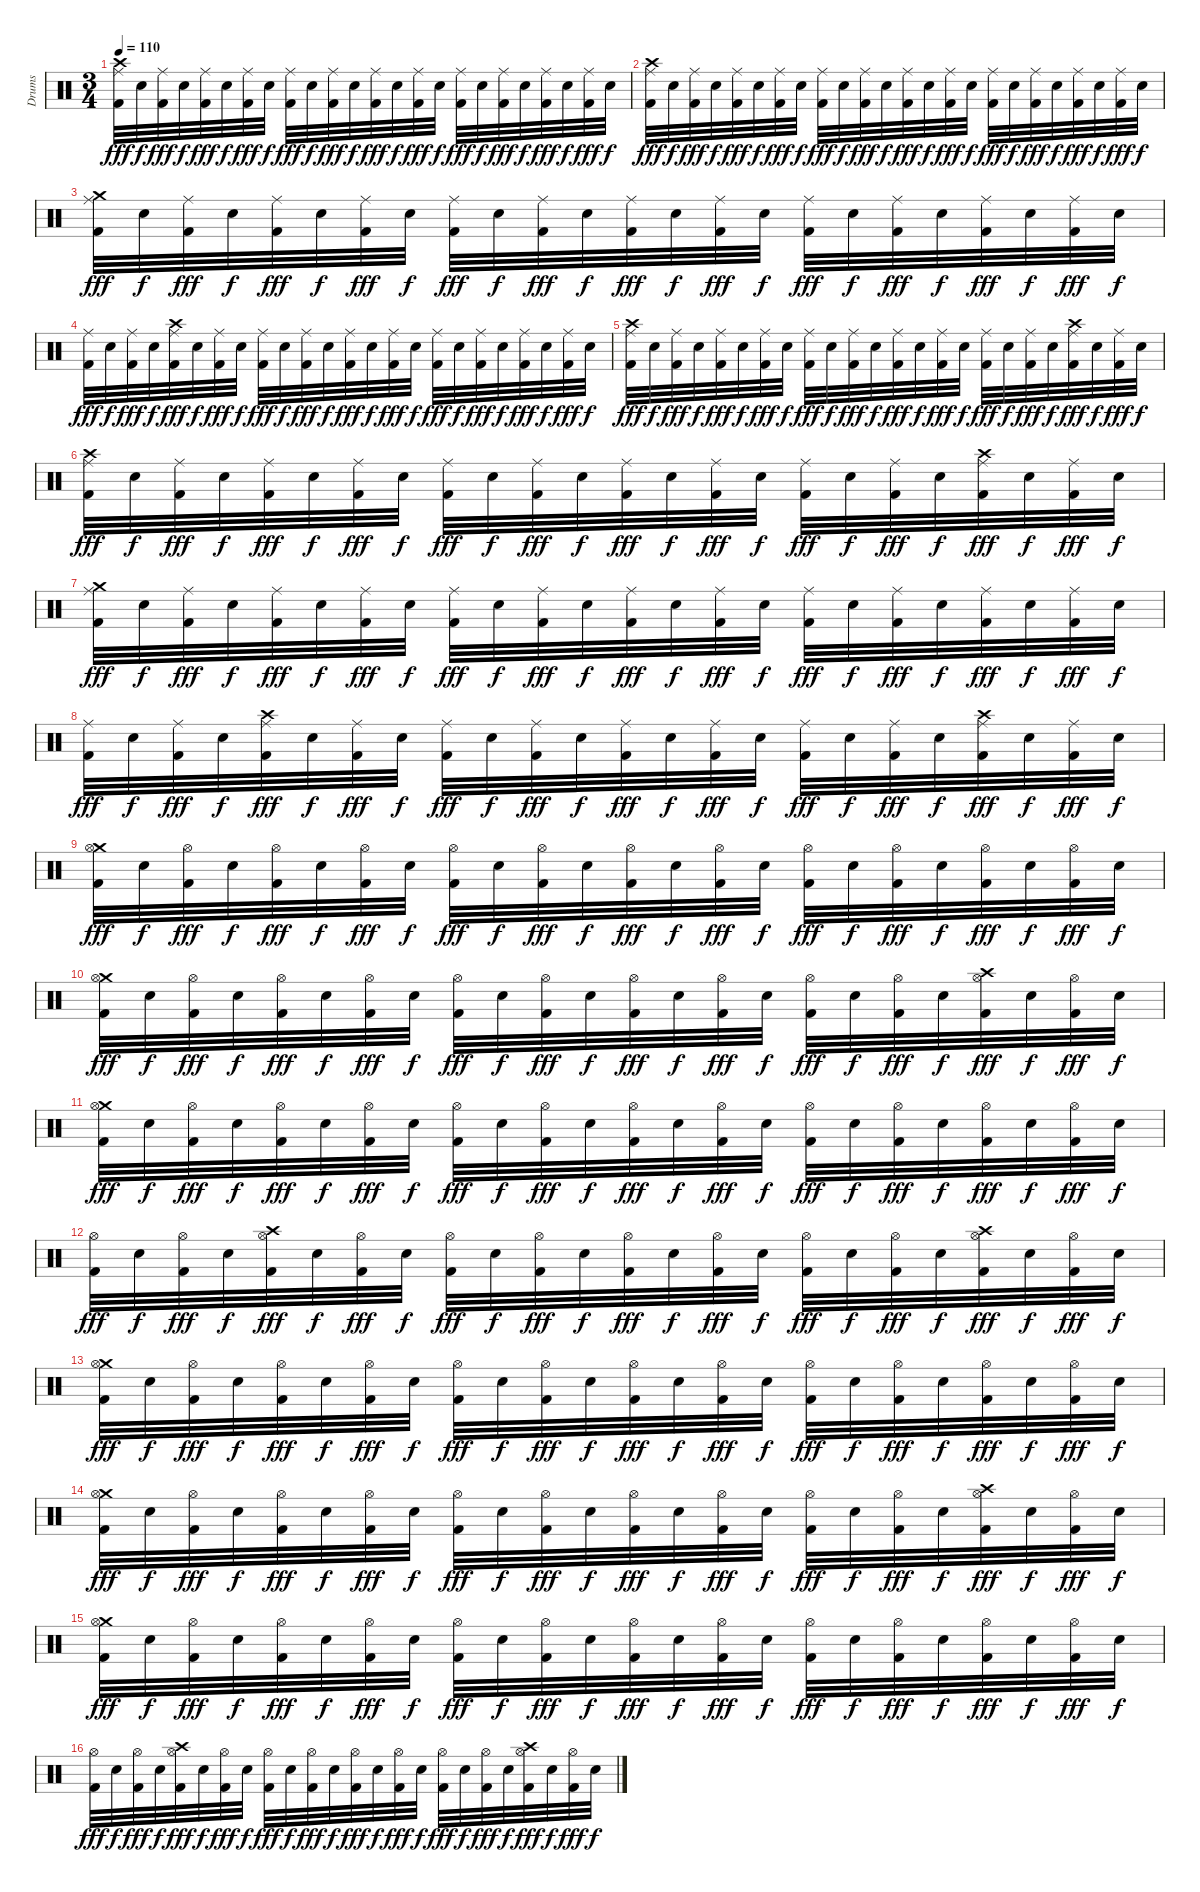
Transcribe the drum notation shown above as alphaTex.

\track ("Drums" "Drums") {instrument percussion}
\staff {score}
\articulation defaults
\ts (3 4)
\tempo 110
\clef neutral
\ks c
("Crash high (hit)" "Ride (middle)" "Kick (hit) 2").32{dy fff} "Electric Snare (hit)".32{dy f} ("Ride (middle)" "Kick (hit) 2").32{dy fff} "Electric Snare (hit)".32{dy f} ("Ride (middle)" "Kick (hit) 2").32{dy fff} "Electric Snare (hit)".32{dy f} ("Ride (middle)" "Kick (hit) 2").32{dy fff} "Electric Snare (hit)".32{dy f} ("Ride (middle)" "Kick (hit) 2").32{dy fff} "Electric Snare (hit)".32{dy f} ("Ride (middle)" "Kick (hit) 2").32{dy fff} "Electric Snare (hit)".32{dy f} ("Ride (middle)" "Kick (hit) 2").32{dy fff} "Electric Snare (hit)".32{dy f} ("Ride (middle)" "Kick (hit) 2").32{dy fff} "Electric Snare (hit)".32{dy f} ("Ride (middle)" "Kick (hit) 2").32{dy fff} "Electric Snare (hit)".32{dy f} ("Ride (middle)" "Kick (hit) 2").32{dy fff} "Electric Snare (hit)".32{dy f} ("Ride (middle)" "Kick (hit) 2").32{dy fff} "Electric Snare (hit)".32{dy f} ("Ride (middle)" "Kick (hit) 2").32{dy fff} "Electric Snare (hit)".32{dy f} |
("Crash high (hit)" "Ride (middle)" "Kick (hit) 2").32{dy fff} "Electric Snare (hit)".32{dy f} ("Ride (middle)" "Kick (hit) 2").32{dy fff} "Electric Snare (hit)".32{dy f} ("Ride (middle)" "Kick (hit) 2").32{dy fff} "Electric Snare (hit)".32{dy f} ("Ride (middle)" "Kick (hit) 2").32{dy fff} "Electric Snare (hit)".32{dy f} ("Ride (middle)" "Kick (hit) 2").32{dy fff} "Electric Snare (hit)".32{dy f} ("Ride (middle)" "Kick (hit) 2").32{dy fff} "Electric Snare (hit)".32{dy f} ("Ride (middle)" "Kick (hit) 2").32{dy fff} "Electric Snare (hit)".32{dy f} ("Ride (middle)" "Kick (hit) 2").32{dy fff} "Electric Snare (hit)".32{dy f} ("Ride (middle)" "Kick (hit) 2").32{dy fff} "Electric Snare (hit)".32{dy f} ("Ride (middle)" "Kick (hit) 2").32{dy fff} "Electric Snare (hit)".32{dy f} ("Ride (middle)" "Kick (hit) 2").32{dy fff} "Electric Snare (hit)".32{dy f} ("Ride (middle)" "Kick (hit) 2").32{dy fff} "Electric Snare (hit)".32{dy f} |
("Crash medium (hit)" "Ride (middle)" "Kick (hit) 2").32{dy fff} "Electric Snare (hit)".32{dy f} ("Ride (middle)" "Kick (hit) 2").32{dy fff} "Electric Snare (hit)".32{dy f} ("Ride (middle)" "Kick (hit) 2").32{dy fff} "Electric Snare (hit)".32{dy f} ("Ride (middle)" "Kick (hit) 2").32{dy fff} "Electric Snare (hit)".32{dy f} ("Ride (middle)" "Kick (hit) 2").32{dy fff} "Electric Snare (hit)".32{dy f} ("Ride (middle)" "Kick (hit) 2").32{dy fff} "Electric Snare (hit)".32{dy f} ("Ride (middle)" "Kick (hit) 2").32{dy fff} "Electric Snare (hit)".32{dy f} ("Ride (middle)" "Kick (hit) 2").32{dy fff} "Electric Snare (hit)".32{dy f} ("Ride (middle)" "Kick (hit) 2").32{dy fff} "Electric Snare (hit)".32{dy f} ("Ride (middle)" "Kick (hit) 2").32{dy fff} "Electric Snare (hit)".32{dy f} ("Ride (middle)" "Kick (hit) 2").32{dy fff} "Electric Snare (hit)".32{dy f} ("Ride (middle)" "Kick (hit) 2").32{dy fff} "Electric Snare (hit)".32{dy f} |
("Ride (middle)" "Kick (hit) 2").32{dy fff} "Electric Snare (hit)".32{dy f} ("Ride (middle)" "Kick (hit) 2").32{dy fff} "Electric Snare (hit)".32{dy f} ("Crash high (hit)" "Ride (middle)" "Kick (hit) 2").32{dy fff} "Electric Snare (hit)".32{dy f} ("Ride (middle)" "Kick (hit) 2").32{dy fff} "Electric Snare (hit)".32{dy f} ("Ride (middle)" "Kick (hit) 2").32{dy fff} "Electric Snare (hit)".32{dy f} ("Ride (middle)" "Kick (hit) 2").32{dy fff} "Electric Snare (hit)".32{dy f} ("Ride (middle)" "Kick (hit) 2").32{dy fff} "Electric Snare (hit)".32{dy f} ("Ride (middle)" "Kick (hit) 2").32{dy fff} "Electric Snare (hit)".32{dy f} ("Ride (middle)" "Kick (hit) 2").32{dy fff} "Electric Snare (hit)".32{dy f} ("Ride (middle)" "Kick (hit) 2").32{dy fff} "Electric Snare (hit)".32{dy f} ("Ride (middle)" "Kick (hit) 2").32{dy fff} "Electric Snare (hit)".32{dy f} ("Ride (middle)" "Kick (hit) 2").32{dy fff} "Electric Snare (hit)".32{dy f} |
("Crash high (hit)" "Ride (middle)" "Kick (hit) 2").32{dy fff} "Electric Snare (hit)".32{dy f} ("Ride (middle)" "Kick (hit) 2").32{dy fff} "Electric Snare (hit)".32{dy f} ("Ride (middle)" "Kick (hit) 2").32{dy fff} "Electric Snare (hit)".32{dy f} ("Ride (middle)" "Kick (hit) 2").32{dy fff} "Electric Snare (hit)".32{dy f} ("Ride (middle)" "Kick (hit) 2").32{dy fff} "Electric Snare (hit)".32{dy f} ("Ride (middle)" "Kick (hit) 2").32{dy fff} "Electric Snare (hit)".32{dy f} ("Ride (middle)" "Kick (hit) 2").32{dy fff} "Electric Snare (hit)".32{dy f} ("Ride (middle)" "Kick (hit) 2").32{dy fff} "Electric Snare (hit)".32{dy f} ("Ride (middle)" "Kick (hit) 2").32{dy fff} "Electric Snare (hit)".32{dy f} ("Ride (middle)" "Kick (hit) 2").32{dy fff} "Electric Snare (hit)".32{dy f} ("Crash high (hit)" "Ride (middle)" "Kick (hit) 2").32{dy fff} "Electric Snare (hit)".32{dy f} ("Ride (middle)" "Kick (hit) 2").32{dy fff} "Electric Snare (hit)".32{dy f} |
("Crash high (hit)" "Ride (middle)" "Kick (hit) 2").32{dy fff} "Electric Snare (hit)".32{dy f} ("Ride (middle)" "Kick (hit) 2").32{dy fff} "Electric Snare (hit)".32{dy f} ("Ride (middle)" "Kick (hit) 2").32{dy fff} "Electric Snare (hit)".32{dy f} ("Ride (middle)" "Kick (hit) 2").32{dy fff} "Electric Snare (hit)".32{dy f} ("Ride (middle)" "Kick (hit) 2").32{dy fff} "Electric Snare (hit)".32{dy f} ("Ride (middle)" "Kick (hit) 2").32{dy fff} "Electric Snare (hit)".32{dy f} ("Ride (middle)" "Kick (hit) 2").32{dy fff} "Electric Snare (hit)".32{dy f} ("Ride (middle)" "Kick (hit) 2").32{dy fff} "Electric Snare (hit)".32{dy f} ("Ride (middle)" "Kick (hit) 2").32{dy fff} "Electric Snare (hit)".32{dy f} ("Ride (middle)" "Kick (hit) 2").32{dy fff} "Electric Snare (hit)".32{dy f} ("Crash high (hit)" "Ride (middle)" "Kick (hit) 2").32{dy fff} "Electric Snare (hit)".32{dy f} ("Ride (middle)" "Kick (hit) 2").32{dy fff} "Electric Snare (hit)".32{dy f} |
("Crash medium (hit)" "Ride (middle)" "Kick (hit) 2").32{dy fff} "Electric Snare (hit)".32{dy f} ("Ride (middle)" "Kick (hit) 2").32{dy fff} "Electric Snare (hit)".32{dy f} ("Ride (middle)" "Kick (hit) 2").32{dy fff} "Electric Snare (hit)".32{dy f} ("Ride (middle)" "Kick (hit) 2").32{dy fff} "Electric Snare (hit)".32{dy f} ("Ride (middle)" "Kick (hit) 2").32{dy fff} "Electric Snare (hit)".32{dy f} ("Ride (middle)" "Kick (hit) 2").32{dy fff} "Electric Snare (hit)".32{dy f} ("Ride (middle)" "Kick (hit) 2").32{dy fff} "Electric Snare (hit)".32{dy f} ("Ride (middle)" "Kick (hit) 2").32{dy fff} "Electric Snare (hit)".32{dy f} ("Ride (middle)" "Kick (hit) 2").32{dy fff} "Electric Snare (hit)".32{dy f} ("Ride (middle)" "Kick (hit) 2").32{dy fff} "Electric Snare (hit)".32{dy f} ("Ride (middle)" "Kick (hit) 2").32{dy fff} "Electric Snare (hit)".32{dy f} ("Ride (middle)" "Kick (hit) 2").32{dy fff} "Electric Snare (hit)".32{dy f} |
("Ride (middle)" "Kick (hit) 2").32{dy fff} "Electric Snare (hit)".32{dy f} ("Ride (middle)" "Kick (hit) 2").32{dy fff} "Electric Snare (hit)".32{dy f} ("Crash high (hit)" "Ride (middle)" "Kick (hit) 2").32{dy fff} "Electric Snare (hit)".32{dy f} ("Ride (middle)" "Kick (hit) 2").32{dy fff} "Electric Snare (hit)".32{dy f} ("Ride (middle)" "Kick (hit) 2").32{dy fff} "Electric Snare (hit)".32{dy f} ("Ride (middle)" "Kick (hit) 2").32{dy fff} "Electric Snare (hit)".32{dy f} ("Ride (middle)" "Kick (hit) 2").32{dy fff} "Electric Snare (hit)".32{dy f} ("Ride (middle)" "Kick (hit) 2").32{dy fff} "Electric Snare (hit)".32{dy f} ("Ride (middle)" "Kick (hit) 2").32{dy fff} "Electric Snare (hit)".32{dy f} ("Ride (middle)" "Kick (hit) 2").32{dy fff} "Electric Snare (hit)".32{dy f} ("Crash high (hit)" "Ride (middle)" "Kick (hit) 2").32{dy fff} "Electric Snare (hit)".32{dy f} ("Ride (middle)" "Kick (hit) 2").32{dy fff} "Electric Snare (hit)".32{dy f} |
("Crash medium (hit)" "Hi-Hat (open)" "Kick (hit) 2").32{dy fff} "Electric Snare (hit)".32{dy f} ("Hi-Hat (open)" "Kick (hit) 2").32{dy fff} "Electric Snare (hit)".32{dy f} ("Hi-Hat (open)" "Kick (hit) 2").32{dy fff} "Electric Snare (hit)".32{dy f} ("Hi-Hat (open)" "Kick (hit) 2").32{dy fff} "Electric Snare (hit)".32{dy f} ("Hi-Hat (open)" "Kick (hit) 2").32{dy fff} "Electric Snare (hit)".32{dy f} ("Hi-Hat (open)" "Kick (hit) 2").32{dy fff} "Electric Snare (hit)".32{dy f} ("Hi-Hat (open)" "Kick (hit) 2").32{dy fff} "Electric Snare (hit)".32{dy f} ("Hi-Hat (open)" "Kick (hit) 2").32{dy fff} "Electric Snare (hit)".32{dy f} ("Hi-Hat (open)" "Kick (hit) 2").32{dy fff} "Electric Snare (hit)".32{dy f} ("Hi-Hat (open)" "Kick (hit) 2").32{dy fff} "Electric Snare (hit)".32{dy f} ("Hi-Hat (open)" "Kick (hit) 2").32{dy fff} "Electric Snare (hit)".32{dy f} ("Hi-Hat (open)" "Kick (hit) 2").32{dy fff} "Electric Snare (hit)".32{dy f} |
("Crash medium (hit)" "Hi-Hat (open)" "Kick (hit) 2").32{dy fff} "Electric Snare (hit)".32{dy f} ("Hi-Hat (open)" "Kick (hit) 2").32{dy fff} "Electric Snare (hit)".32{dy f} ("Hi-Hat (open)" "Kick (hit) 2").32{dy fff} "Electric Snare (hit)".32{dy f} ("Hi-Hat (open)" "Kick (hit) 2").32{dy fff} "Electric Snare (hit)".32{dy f} ("Hi-Hat (open)" "Kick (hit) 2").32{dy fff} "Electric Snare (hit)".32{dy f} ("Hi-Hat (open)" "Kick (hit) 2").32{dy fff} "Electric Snare (hit)".32{dy f} ("Hi-Hat (open)" "Kick (hit) 2").32{dy fff} "Electric Snare (hit)".32{dy f} ("Hi-Hat (open)" "Kick (hit) 2").32{dy fff} "Electric Snare (hit)".32{dy f} ("Hi-Hat (open)" "Kick (hit) 2").32{dy fff} "Electric Snare (hit)".32{dy f} ("Hi-Hat (open)" "Kick (hit) 2").32{dy fff} "Electric Snare (hit)".32{dy f} ("Crash high (hit)" "Hi-Hat (open)" "Kick (hit) 2").32{dy fff} "Electric Snare (hit)".32{dy f} ("Hi-Hat (open)" "Kick (hit) 2").32{dy fff} "Electric Snare (hit)".32{dy f} |
("Crash medium (hit)" "Hi-Hat (open)" "Kick (hit) 2").32{dy fff} "Electric Snare (hit)".32{dy f} ("Hi-Hat (open)" "Kick (hit) 2").32{dy fff} "Electric Snare (hit)".32{dy f} ("Hi-Hat (open)" "Kick (hit) 2").32{dy fff} "Electric Snare (hit)".32{dy f} ("Hi-Hat (open)" "Kick (hit) 2").32{dy fff} "Electric Snare (hit)".32{dy f} ("Hi-Hat (open)" "Kick (hit) 2").32{dy fff} "Electric Snare (hit)".32{dy f} ("Hi-Hat (open)" "Kick (hit) 2").32{dy fff} "Electric Snare (hit)".32{dy f} ("Hi-Hat (open)" "Kick (hit) 2").32{dy fff} "Electric Snare (hit)".32{dy f} ("Hi-Hat (open)" "Kick (hit) 2").32{dy fff} "Electric Snare (hit)".32{dy f} ("Hi-Hat (open)" "Kick (hit) 2").32{dy fff} "Electric Snare (hit)".32{dy f} ("Hi-Hat (open)" "Kick (hit) 2").32{dy fff} "Electric Snare (hit)".32{dy f} ("Hi-Hat (open)" "Kick (hit) 2").32{dy fff} "Electric Snare (hit)".32{dy f} ("Hi-Hat (open)" "Kick (hit) 2").32{dy fff} "Electric Snare (hit)".32{dy f} |
("Hi-Hat (open)" "Kick (hit) 2").32{dy fff} "Electric Snare (hit)".32{dy f} ("Hi-Hat (open)" "Kick (hit) 2").32{dy fff} "Electric Snare (hit)".32{dy f} ("Crash high (hit)" "Hi-Hat (open)" "Kick (hit) 2").32{dy fff} "Electric Snare (hit)".32{dy f} ("Hi-Hat (open)" "Kick (hit) 2").32{dy fff} "Electric Snare (hit)".32{dy f} ("Hi-Hat (open)" "Kick (hit) 2").32{dy fff} "Electric Snare (hit)".32{dy f} ("Hi-Hat (open)" "Kick (hit) 2").32{dy fff} "Electric Snare (hit)".32{dy f} ("Hi-Hat (open)" "Kick (hit) 2").32{dy fff} "Electric Snare (hit)".32{dy f} ("Hi-Hat (open)" "Kick (hit) 2").32{dy fff} "Electric Snare (hit)".32{dy f} ("Hi-Hat (open)" "Kick (hit) 2").32{dy fff} "Electric Snare (hit)".32{dy f} ("Hi-Hat (open)" "Kick (hit) 2").32{dy fff} "Electric Snare (hit)".32{dy f} ("Crash high (hit)" "Hi-Hat (open)" "Kick (hit) 2").32{dy fff} "Electric Snare (hit)".32{dy f} ("Hi-Hat (open)" "Kick (hit) 2").32{dy fff} "Electric Snare (hit)".32{dy f} |
("Crash medium (hit)" "Hi-Hat (open)" "Kick (hit) 2").32{dy fff} "Electric Snare (hit)".32{dy f} ("Hi-Hat (open)" "Kick (hit) 2").32{dy fff} "Electric Snare (hit)".32{dy f} ("Hi-Hat (open)" "Kick (hit) 2").32{dy fff} "Electric Snare (hit)".32{dy f} ("Hi-Hat (open)" "Kick (hit) 2").32{dy fff} "Electric Snare (hit)".32{dy f} ("Hi-Hat (open)" "Kick (hit) 2").32{dy fff} "Electric Snare (hit)".32{dy f} ("Hi-Hat (open)" "Kick (hit) 2").32{dy fff} "Electric Snare (hit)".32{dy f} ("Hi-Hat (open)" "Kick (hit) 2").32{dy fff} "Electric Snare (hit)".32{dy f} ("Hi-Hat (open)" "Kick (hit) 2").32{dy fff} "Electric Snare (hit)".32{dy f} ("Hi-Hat (open)" "Kick (hit) 2").32{dy fff} "Electric Snare (hit)".32{dy f} ("Hi-Hat (open)" "Kick (hit) 2").32{dy fff} "Electric Snare (hit)".32{dy f} ("Hi-Hat (open)" "Kick (hit) 2").32{dy fff} "Electric Snare (hit)".32{dy f} ("Hi-Hat (open)" "Kick (hit) 2").32{dy fff} "Electric Snare (hit)".32{dy f} |
("Crash medium (hit)" "Hi-Hat (open)" "Kick (hit) 2").32{dy fff} "Electric Snare (hit)".32{dy f} ("Hi-Hat (open)" "Kick (hit) 2").32{dy fff} "Electric Snare (hit)".32{dy f} ("Hi-Hat (open)" "Kick (hit) 2").32{dy fff} "Electric Snare (hit)".32{dy f} ("Hi-Hat (open)" "Kick (hit) 2").32{dy fff} "Electric Snare (hit)".32{dy f} ("Hi-Hat (open)" "Kick (hit) 2").32{dy fff} "Electric Snare (hit)".32{dy f} ("Hi-Hat (open)" "Kick (hit) 2").32{dy fff} "Electric Snare (hit)".32{dy f} ("Hi-Hat (open)" "Kick (hit) 2").32{dy fff} "Electric Snare (hit)".32{dy f} ("Hi-Hat (open)" "Kick (hit) 2").32{dy fff} "Electric Snare (hit)".32{dy f} ("Hi-Hat (open)" "Kick (hit) 2").32{dy fff} "Electric Snare (hit)".32{dy f} ("Hi-Hat (open)" "Kick (hit) 2").32{dy fff} "Electric Snare (hit)".32{dy f} ("Crash high (hit)" "Hi-Hat (open)" "Kick (hit) 2").32{dy fff} "Electric Snare (hit)".32{dy f} ("Hi-Hat (open)" "Kick (hit) 2").32{dy fff} "Electric Snare (hit)".32{dy f} |
("Crash medium (hit)" "Hi-Hat (open)" "Kick (hit) 2").32{dy fff} "Electric Snare (hit)".32{dy f} ("Hi-Hat (open)" "Kick (hit) 2").32{dy fff} "Electric Snare (hit)".32{dy f} ("Hi-Hat (open)" "Kick (hit) 2").32{dy fff} "Electric Snare (hit)".32{dy f} ("Hi-Hat (open)" "Kick (hit) 2").32{dy fff} "Electric Snare (hit)".32{dy f} ("Hi-Hat (open)" "Kick (hit) 2").32{dy fff} "Electric Snare (hit)".32{dy f} ("Hi-Hat (open)" "Kick (hit) 2").32{dy fff} "Electric Snare (hit)".32{dy f} ("Hi-Hat (open)" "Kick (hit) 2").32{dy fff} "Electric Snare (hit)".32{dy f} ("Hi-Hat (open)" "Kick (hit) 2").32{dy fff} "Electric Snare (hit)".32{dy f} ("Hi-Hat (open)" "Kick (hit) 2").32{dy fff} "Electric Snare (hit)".32{dy f} ("Hi-Hat (open)" "Kick (hit) 2").32{dy fff} "Electric Snare (hit)".32{dy f} ("Hi-Hat (open)" "Kick (hit) 2").32{dy fff} "Electric Snare (hit)".32{dy f} ("Hi-Hat (open)" "Kick (hit) 2").32{dy fff} "Electric Snare (hit)".32{dy f} |
("Hi-Hat (open)" "Kick (hit) 2").32{dy fff} "Electric Snare (hit)".32{dy f} ("Hi-Hat (open)" "Kick (hit) 2").32{dy fff} "Electric Snare (hit)".32{dy f} ("Crash high (hit)" "Hi-Hat (open)" "Kick (hit) 2").32{dy fff} "Electric Snare (hit)".32{dy f} ("Hi-Hat (open)" "Kick (hit) 2").32{dy fff} "Electric Snare (hit)".32{dy f} ("Hi-Hat (open)" "Kick (hit) 2").32{dy fff} "Electric Snare (hit)".32{dy f} ("Hi-Hat (open)" "Kick (hit) 2").32{dy fff} "Electric Snare (hit)".32{dy f} ("Hi-Hat (open)" "Kick (hit) 2").32{dy fff} "Electric Snare (hit)".32{dy f} ("Hi-Hat (open)" "Kick (hit) 2").32{dy fff} "Electric Snare (hit)".32{dy f} ("Hi-Hat (open)" "Kick (hit) 2").32{dy fff} "Electric Snare (hit)".32{dy f} ("Hi-Hat (open)" "Kick (hit) 2").32{dy fff} "Electric Snare (hit)".32{dy f} ("Crash high (hit)" "Hi-Hat (open)" "Kick (hit) 2").32{dy fff} "Electric Snare (hit)".32{dy f} ("Hi-Hat (open)" "Kick (hit) 2").32{dy fff} "Electric Snare (hit)".32{dy f}
